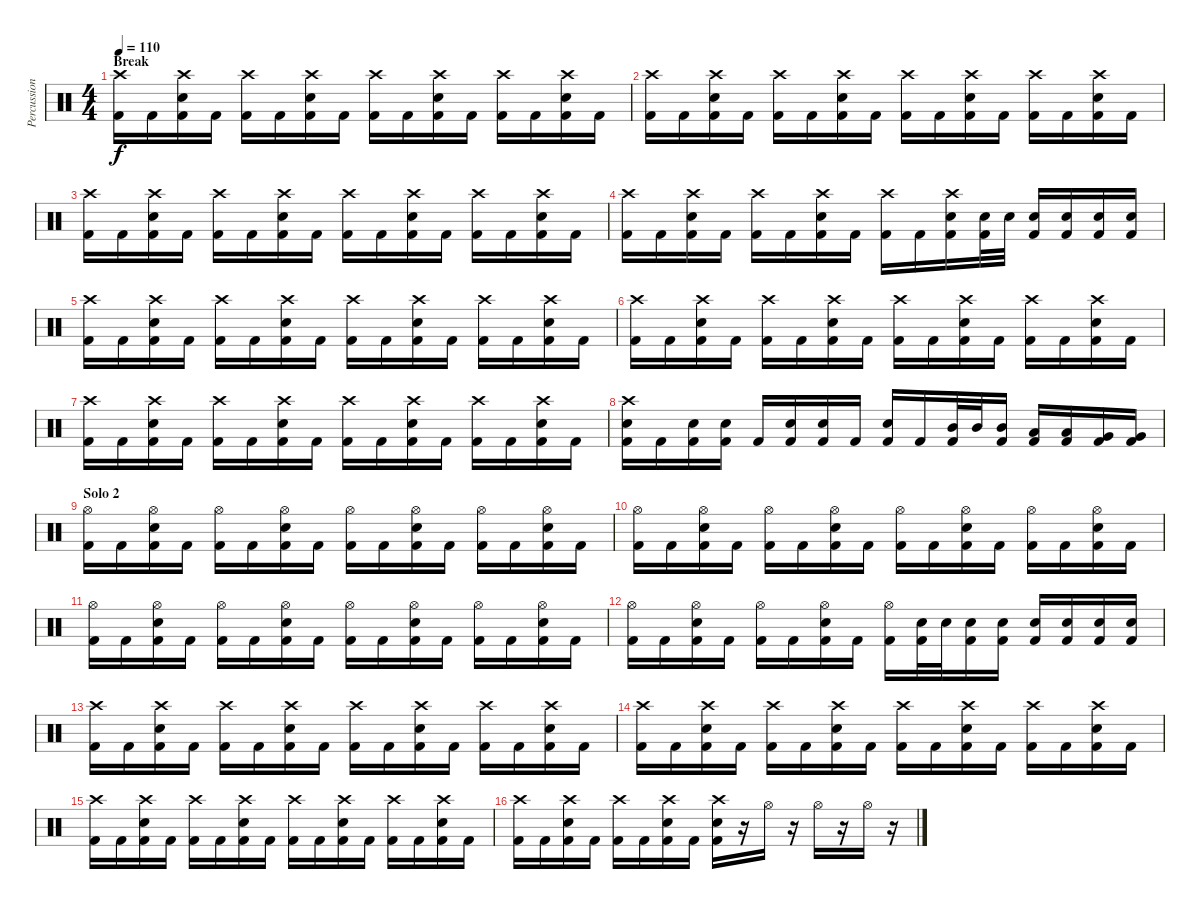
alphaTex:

\track ("Percussions" "Percussion") {instrument percussion}
\staff {score}
\articulation defaults
\ts (4 4)
\section ("" "Break")
\tempo 110
\clef neutral
\ks c
("Crash high (hit)" "Kick (hit) 2").16{dy f} "Kick (hit) 2".16 ("Crash high (hit)" "Electric Snare (hit)" "Kick (hit) 2").16 "Kick (hit) 2".16 ("Crash high (hit)" "Kick (hit) 2").16 "Kick (hit) 2".16 ("Crash high (hit)" "Electric Snare (hit)" "Kick (hit) 2").16 "Kick (hit) 2".16 ("Crash high (hit)" "Kick (hit) 2").16 "Kick (hit) 2".16 ("Crash high (hit)" "Electric Snare (hit)" "Kick (hit) 2").16 "Kick (hit) 2".16 ("Crash high (hit)" "Kick (hit) 2").16 "Kick (hit) 2".16 ("Crash high (hit)" "Electric Snare (hit)" "Kick (hit) 2").16 "Kick (hit) 2".16 |
("Crash high (hit)" "Kick (hit) 2").16 "Kick (hit) 2".16 ("Crash high (hit)" "Electric Snare (hit)" "Kick (hit) 2").16 "Kick (hit) 2".16 ("Crash high (hit)" "Kick (hit) 2").16 "Kick (hit) 2".16 ("Crash high (hit)" "Electric Snare (hit)" "Kick (hit) 2").16 "Kick (hit) 2".16 ("Crash high (hit)" "Kick (hit) 2").16 "Kick (hit) 2".16 ("Crash high (hit)" "Electric Snare (hit)" "Kick (hit) 2").16 "Kick (hit) 2".16 ("Crash high (hit)" "Kick (hit) 2").16 "Kick (hit) 2".16 ("Crash high (hit)" "Electric Snare (hit)" "Kick (hit) 2").16 "Kick (hit) 2".16 |
("Crash high (hit)" "Kick (hit) 2").16 "Kick (hit) 2".16 ("Crash high (hit)" "Electric Snare (hit)" "Kick (hit) 2").16 "Kick (hit) 2".16 ("Crash high (hit)" "Kick (hit) 2").16 "Kick (hit) 2".16 ("Crash high (hit)" "Electric Snare (hit)" "Kick (hit) 2").16 "Kick (hit) 2".16 ("Crash high (hit)" "Kick (hit) 2").16 "Kick (hit) 2".16 ("Crash high (hit)" "Electric Snare (hit)" "Kick (hit) 2").16 "Kick (hit) 2".16 ("Crash high (hit)" "Kick (hit) 2").16 "Kick (hit) 2".16 ("Crash high (hit)" "Electric Snare (hit)" "Kick (hit) 2").16 "Kick (hit) 2".16 |
("Crash high (hit)" "Kick (hit) 2").16 "Kick (hit) 2".16 ("Crash high (hit)" "Electric Snare (hit)" "Kick (hit) 2").16 "Kick (hit) 2".16 ("Crash high (hit)" "Kick (hit) 2").16 "Kick (hit) 2".16 ("Crash high (hit)" "Electric Snare (hit)" "Kick (hit) 2").16 "Kick (hit) 2".16 ("Crash high (hit)" "Kick (hit) 2").16 "Kick (hit) 2".16 ("Crash high (hit)" "Electric Snare (hit)" "Kick (hit) 2").16 ("Electric Snare (hit)" "Kick (hit) 2").32 "Electric Snare (hit)".32 ("Electric Snare (hit)" "Kick (hit) 2").16 ("Electric Snare (hit)" "Kick (hit) 2").16 ("Electric Snare (hit)" "Kick (hit) 2").16 ("Electric Snare (hit)" "Kick (hit) 2").16 |
("Crash high (hit)" "Kick (hit) 2").16 "Kick (hit) 2".16 ("Crash high (hit)" "Electric Snare (hit)" "Kick (hit) 2").16 "Kick (hit) 2".16 ("Crash high (hit)" "Kick (hit) 2").16 "Kick (hit) 2".16 ("Crash high (hit)" "Electric Snare (hit)" "Kick (hit) 2").16 "Kick (hit) 2".16 ("Crash high (hit)" "Kick (hit) 2").16 "Kick (hit) 2".16 ("Crash high (hit)" "Electric Snare (hit)" "Kick (hit) 2").16 "Kick (hit) 2".16 ("Crash high (hit)" "Kick (hit) 2").16 "Kick (hit) 2".16 ("Crash high (hit)" "Electric Snare (hit)" "Kick (hit) 2").16 "Kick (hit) 2".16 |
("Crash high (hit)" "Kick (hit) 2").16 "Kick (hit) 2".16 ("Crash high (hit)" "Electric Snare (hit)" "Kick (hit) 2").16 "Kick (hit) 2".16 ("Crash high (hit)" "Kick (hit) 2").16 "Kick (hit) 2".16 ("Crash high (hit)" "Electric Snare (hit)" "Kick (hit) 2").16 "Kick (hit) 2".16 ("Crash high (hit)" "Kick (hit) 2").16 "Kick (hit) 2".16 ("Crash high (hit)" "Electric Snare (hit)" "Kick (hit) 2").16 "Kick (hit) 2".16 ("Crash high (hit)" "Kick (hit) 2").16 "Kick (hit) 2".16 ("Crash high (hit)" "Electric Snare (hit)" "Kick (hit) 2").16 "Kick (hit) 2".16 |
("Crash high (hit)" "Kick (hit) 2").16 "Kick (hit) 2".16 ("Crash high (hit)" "Electric Snare (hit)" "Kick (hit) 2").16 "Kick (hit) 2".16 ("Crash high (hit)" "Kick (hit) 2").16 "Kick (hit) 2".16 ("Crash high (hit)" "Electric Snare (hit)" "Kick (hit) 2").16 "Kick (hit) 2".16 ("Crash high (hit)" "Kick (hit) 2").16 "Kick (hit) 2".16 ("Crash high (hit)" "Electric Snare (hit)" "Kick (hit) 2").16 "Kick (hit) 2".16 ("Crash high (hit)" "Kick (hit) 2").16 "Kick (hit) 2".16 ("Crash high (hit)" "Electric Snare (hit)" "Kick (hit) 2").16 "Kick (hit) 2".16 |
("Crash high (hit)" "Electric Snare (hit)" "Kick (hit) 2").16 "Kick (hit) 2".16 ("Electric Snare (hit)" "Kick (hit) 2").16 ("Electric Snare (hit)" "Kick (hit) 2").16 "Kick (hit) 2".16 ("Electric Snare (hit)" "Kick (hit) 2").16 ("Electric Snare (hit)" "Kick (hit) 2").16 "Kick (hit) 2".16 ("Electric Snare (hit)" "Kick (hit) 2").16 "Kick (hit) 2".16 ("Mid Tom (hit)" "Kick (hit) 2").32 "Mid Tom (hit)".32 ("Mid Tom (hit)" "Kick (hit) 2").16 ("Low Tom (hit)" "Kick (hit) 2").16 ("Low Tom (hit)" "Kick (hit) 2").16 ("Very Low Tom (hit)" "Kick (hit) 2").16 ("Very Low Tom (hit)" "Kick (hit) 2").16 |
\section ("" "Solo 2")
("Hi-Hat (open)" "Kick (hit) 2").16 "Kick (hit) 2".16 ("Hi-Hat (open)" "Electric Snare (hit)" "Kick (hit) 2").16 "Kick (hit) 2".16 ("Hi-Hat (open)" "Kick (hit) 2").16 "Kick (hit) 2".16 ("Hi-Hat (open)" "Electric Snare (hit)" "Kick (hit) 2").16 "Kick (hit) 2".16 ("Hi-Hat (open)" "Kick (hit) 2").16 "Kick (hit) 2".16 ("Hi-Hat (open)" "Electric Snare (hit)" "Kick (hit) 2").16 "Kick (hit) 2".16 ("Hi-Hat (open)" "Kick (hit) 2").16 "Kick (hit) 2".16 ("Hi-Hat (open)" "Electric Snare (hit)" "Kick (hit) 2").16 "Kick (hit) 2".16 |
("Hi-Hat (open)" "Kick (hit) 2").16 "Kick (hit) 2".16 ("Hi-Hat (open)" "Electric Snare (hit)" "Kick (hit) 2").16 "Kick (hit) 2".16 ("Hi-Hat (open)" "Kick (hit) 2").16 "Kick (hit) 2".16 ("Hi-Hat (open)" "Electric Snare (hit)" "Kick (hit) 2").16 "Kick (hit) 2".16 ("Hi-Hat (open)" "Kick (hit) 2").16 "Kick (hit) 2".16 ("Hi-Hat (open)" "Electric Snare (hit)" "Kick (hit) 2").16 "Kick (hit) 2".16 ("Hi-Hat (open)" "Kick (hit) 2").16 "Kick (hit) 2".16 ("Hi-Hat (open)" "Electric Snare (hit)" "Kick (hit) 2").16 "Kick (hit) 2".16 |
("Hi-Hat (open)" "Kick (hit) 2").16 "Kick (hit) 2".16 ("Hi-Hat (open)" "Electric Snare (hit)" "Kick (hit) 2").16 "Kick (hit) 2".16 ("Hi-Hat (open)" "Kick (hit) 2").16 "Kick (hit) 2".16 ("Hi-Hat (open)" "Electric Snare (hit)" "Kick (hit) 2").16 "Kick (hit) 2".16 ("Hi-Hat (open)" "Kick (hit) 2").16 "Kick (hit) 2".16 ("Hi-Hat (open)" "Electric Snare (hit)" "Kick (hit) 2").16 "Kick (hit) 2".16 ("Hi-Hat (open)" "Kick (hit) 2").16 "Kick (hit) 2".16 ("Hi-Hat (open)" "Electric Snare (hit)" "Kick (hit) 2").16 "Kick (hit) 2".16 |
("Hi-Hat (open)" "Kick (hit) 2").16 "Kick (hit) 2".16 ("Hi-Hat (open)" "Electric Snare (hit)" "Kick (hit) 2").16 "Kick (hit) 2".16 ("Hi-Hat (open)" "Kick (hit) 2").16 "Kick (hit) 2".16 ("Hi-Hat (open)" "Electric Snare (hit)" "Kick (hit) 2").16 "Kick (hit) 2".16 ("Hi-Hat (open)" "Kick (hit) 2").16 ("Electric Snare (hit)" "Kick (hit) 2").32 "Electric Snare (hit)".32 ("Electric Snare (hit)" "Kick (hit) 2").16 ("Electric Snare (hit)" "Kick (hit) 2").16 ("Electric Snare (hit)" "Kick (hit) 2").16 ("Electric Snare (hit)" "Kick (hit) 2").16 ("Electric Snare (hit)" "Kick (hit) 2").16 ("Electric Snare (hit)" "Kick (hit) 2").16 |
("Crash high (hit)" "Kick (hit) 2").16 "Kick (hit) 2".16 ("Crash high (hit)" "Electric Snare (hit)" "Kick (hit) 2").16 "Kick (hit) 2".16 ("Crash high (hit)" "Kick (hit) 2").16 "Kick (hit) 2".16 ("Crash high (hit)" "Electric Snare (hit)" "Kick (hit) 2").16 "Kick (hit) 2".16 ("Crash high (hit)" "Kick (hit) 2").16 "Kick (hit) 2".16 ("Crash high (hit)" "Electric Snare (hit)" "Kick (hit) 2").16 "Kick (hit) 2".16 ("Crash high (hit)" "Kick (hit) 2").16 "Kick (hit) 2".16 ("Crash high (hit)" "Electric Snare (hit)" "Kick (hit) 2").16 "Kick (hit) 2".16 |
("Crash high (hit)" "Kick (hit) 2").16 "Kick (hit) 2".16 ("Crash high (hit)" "Electric Snare (hit)" "Kick (hit) 2").16 "Kick (hit) 2".16 ("Crash high (hit)" "Kick (hit) 2").16 "Kick (hit) 2".16 ("Crash high (hit)" "Electric Snare (hit)" "Kick (hit) 2").16 "Kick (hit) 2".16 ("Crash high (hit)" "Kick (hit) 2").16 "Kick (hit) 2".16 ("Crash high (hit)" "Electric Snare (hit)" "Kick (hit) 2").16 "Kick (hit) 2".16 ("Crash high (hit)" "Kick (hit) 2").16 "Kick (hit) 2".16 ("Crash high (hit)" "Electric Snare (hit)" "Kick (hit) 2").16 "Kick (hit) 2".16 |
("Crash high (hit)" "Kick (hit) 2").16 "Kick (hit) 2".16 ("Crash high (hit)" "Electric Snare (hit)" "Kick (hit) 2").16 "Kick (hit) 2".16 ("Crash high (hit)" "Kick (hit) 2").16 "Kick (hit) 2".16 ("Crash high (hit)" "Electric Snare (hit)" "Kick (hit) 2").16 "Kick (hit) 2".16 ("Crash high (hit)" "Kick (hit) 2").16 "Kick (hit) 2".16 ("Crash high (hit)" "Electric Snare (hit)" "Kick (hit) 2").16 "Kick (hit) 2".16 ("Crash high (hit)" "Kick (hit) 2").16 "Kick (hit) 2".16 ("Crash high (hit)" "Electric Snare (hit)" "Kick (hit) 2").16 "Kick (hit) 2".16 |
("Crash high (hit)" "Kick (hit) 2").16 "Kick (hit) 2".16 ("Crash high (hit)" "Electric Snare (hit)" "Kick (hit) 2").16 "Kick (hit) 2".16 ("Crash high (hit)" "Kick (hit) 2").16 "Kick (hit) 2".16 ("Crash high (hit)" "Electric Snare (hit)" "Kick (hit) 2").16 "Kick (hit) 2".16 ("Crash high (hit)" "Electric Snare (hit)" "Kick (hit) 2").16 r.16 "Hi-Hat (open)".16 r.16 "Hi-Hat (open)".16 r.16 "Hi-Hat (open)".16 r.16
